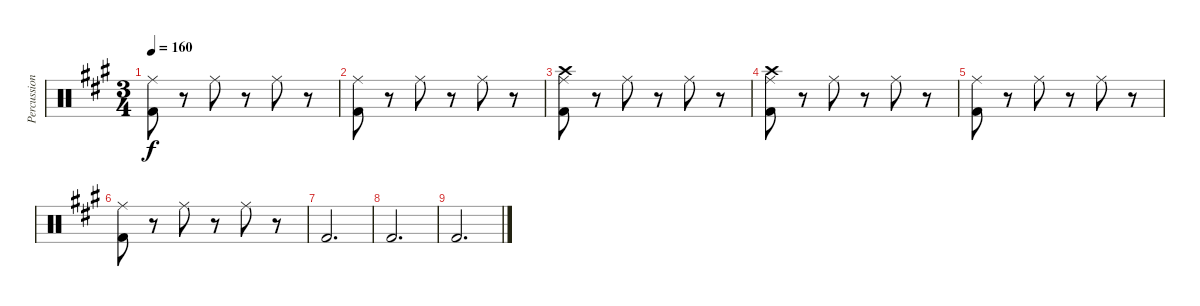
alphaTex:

\track ("Percussioni" "Percussion") {instrument percussion}
\staff {score}
\articulation defaults
\ts (3 4)
\tempo 160
\clef neutral
\ks a
("Ride (middle)" "Kick (hit) 2").8{dy f} r.8 "Ride (middle)".8 r.8 "Ride (middle)".8 r.8 |
("Ride (middle)" "Kick (hit) 2").8 r.8 "Ride (middle)".8 r.8 "Ride (middle)".8 r.8 |
("Crash high (hit)" "Ride (middle)" "Kick (hit) 2").8 r.8 "Ride (middle)".8 r.8 "Ride (middle)".8 r.8 |
("Crash high (hit)" "Ride (middle)" "Kick (hit) 2").8 r.8 "Ride (middle)".8 r.8 "Ride (middle)".8 r.8 |
("Ride (middle)" "Kick (hit) 2").8 r.8 "Ride (middle)".8 r.8 "Ride (middle)".8 r.8 |
("Ride (middle)" "Kick (hit) 2").8 r.8 "Ride (middle)".8 r.8 "Ride (middle)".8 r.8 |
"Kick (hit) 2".2{d} |
"Kick (hit) 2".2{d} |
"Kick (hit) 2".2{d}
